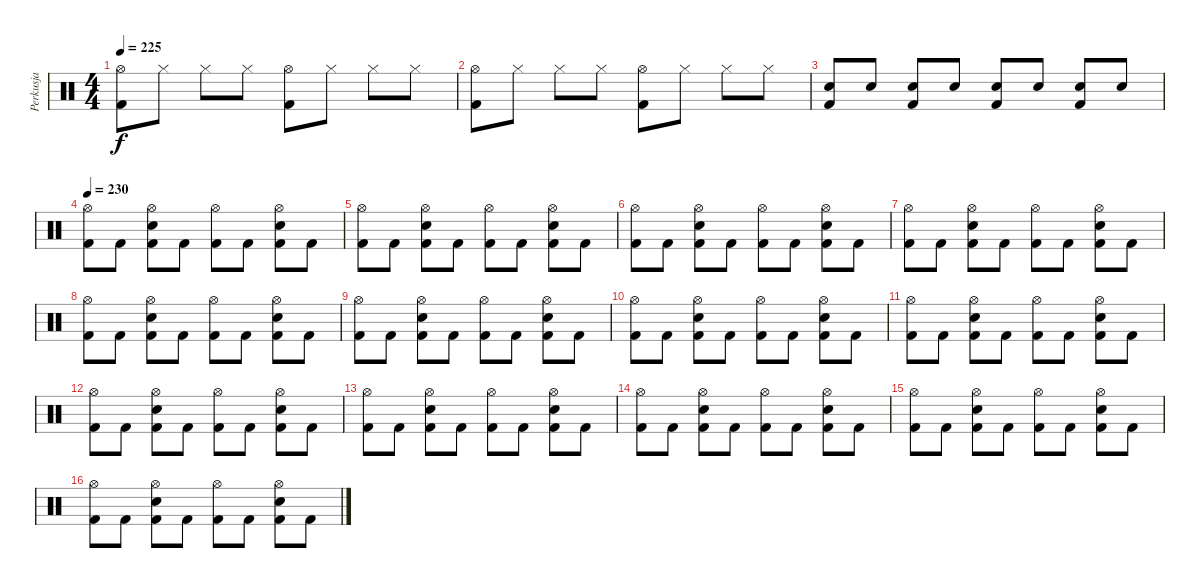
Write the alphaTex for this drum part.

\track ("Perkusja" "Perkusja") {instrument percussion}
\staff {score}
\articulation defaults
\ts (4 4)
\tempo 225
\clef neutral
\ks c
("Hi-Hat (open)" "Kick (hit) 2").8{dy f} "Hi-Hat (closed)".8 "Hi-Hat (closed)".8 "Hi-Hat (closed)".8 ("Hi-Hat (open)" "Kick (hit) 2").8 "Hi-Hat (closed)".8 "Hi-Hat (closed)".8 "Hi-Hat (closed)".8 |
("Hi-Hat (open)" "Kick (hit) 2").8 "Hi-Hat (closed)".8 "Hi-Hat (closed)".8 "Hi-Hat (closed)".8 ("Hi-Hat (open)" "Kick (hit) 2").8 "Hi-Hat (closed)".8 "Hi-Hat (closed)".8 "Hi-Hat (closed)".8 |
("Snare (hit) 2" "Kick (hit) 2").8 "Snare (hit) 2".8 ("Snare (hit) 2" "Kick (hit) 2").8 "Snare (hit) 2".8 ("Snare (hit) 2" "Kick (hit) 2").8 "Snare (hit) 2".8 ("Snare (hit) 2" "Kick (hit) 2").8 "Snare (hit) 2".8 |
\tempo 230
("Hi-Hat (open)" "Kick (hit) 2").8 "Kick (hit) 2".8 ("Hi-Hat (open)" "Snare (hit) 2" "Kick (hit) 2").8 "Kick (hit) 2".8 ("Hi-Hat (open)" "Kick (hit) 2").8 "Kick (hit) 2".8 ("Hi-Hat (open)" "Snare (hit) 2" "Kick (hit) 2").8 "Kick (hit) 2".8 |
("Hi-Hat (open)" "Kick (hit) 2").8 "Kick (hit) 2".8 ("Hi-Hat (open)" "Snare (hit) 2" "Kick (hit) 2").8 "Kick (hit) 2".8 ("Hi-Hat (open)" "Kick (hit) 2").8 "Kick (hit) 2".8 ("Hi-Hat (open)" "Snare (hit) 2" "Kick (hit) 2").8 "Kick (hit) 2".8 |
("Hi-Hat (open)" "Kick (hit) 2").8 "Kick (hit) 2".8 ("Hi-Hat (open)" "Snare (hit) 2" "Kick (hit) 2").8 "Kick (hit) 2".8 ("Hi-Hat (open)" "Kick (hit) 2").8 "Kick (hit) 2".8 ("Hi-Hat (open)" "Snare (hit) 2" "Kick (hit) 2").8 "Kick (hit) 2".8 |
("Hi-Hat (open)" "Kick (hit) 2").8 "Kick (hit) 2".8 ("Hi-Hat (open)" "Snare (hit) 2" "Kick (hit) 2").8 "Kick (hit) 2".8 ("Hi-Hat (open)" "Kick (hit) 2").8 "Kick (hit) 2".8 ("Hi-Hat (open)" "Snare (hit) 2" "Kick (hit) 2").8 "Kick (hit) 2".8 |
("Hi-Hat (open)" "Kick (hit) 2").8 "Kick (hit) 2".8 ("Hi-Hat (open)" "Snare (hit) 2" "Kick (hit) 2").8 "Kick (hit) 2".8 ("Hi-Hat (open)" "Kick (hit) 2").8 "Kick (hit) 2".8 ("Hi-Hat (open)" "Snare (hit) 2" "Kick (hit) 2").8 "Kick (hit) 2".8 |
("Hi-Hat (open)" "Kick (hit) 2").8 "Kick (hit) 2".8 ("Hi-Hat (open)" "Snare (hit) 2" "Kick (hit) 2").8 "Kick (hit) 2".8 ("Hi-Hat (open)" "Kick (hit) 2").8 "Kick (hit) 2".8 ("Hi-Hat (open)" "Snare (hit) 2" "Kick (hit) 2").8 "Kick (hit) 2".8 |
("Hi-Hat (open)" "Kick (hit) 2").8 "Kick (hit) 2".8 ("Hi-Hat (open)" "Snare (hit) 2" "Kick (hit) 2").8 "Kick (hit) 2".8 ("Hi-Hat (open)" "Kick (hit) 2").8 "Kick (hit) 2".8 ("Hi-Hat (open)" "Snare (hit) 2" "Kick (hit) 2").8 "Kick (hit) 2".8 |
("Hi-Hat (open)" "Kick (hit) 2").8 "Kick (hit) 2".8 ("Hi-Hat (open)" "Snare (hit) 2" "Kick (hit) 2").8 "Kick (hit) 2".8 ("Hi-Hat (open)" "Kick (hit) 2").8 "Kick (hit) 2".8 ("Hi-Hat (open)" "Snare (hit) 2" "Kick (hit) 2").8 "Kick (hit) 2".8 |
("Hi-Hat (open)" "Kick (hit) 2").8 "Kick (hit) 2".8 ("Hi-Hat (open)" "Snare (hit) 2" "Kick (hit) 2").8 "Kick (hit) 2".8 ("Hi-Hat (open)" "Kick (hit) 2").8 "Kick (hit) 2".8 ("Hi-Hat (open)" "Snare (hit) 2" "Kick (hit) 2").8 "Kick (hit) 2".8 |
("Hi-Hat (open)" "Kick (hit) 2").8 "Kick (hit) 2".8 ("Hi-Hat (open)" "Snare (hit) 2" "Kick (hit) 2").8 "Kick (hit) 2".8 ("Hi-Hat (open)" "Kick (hit) 2").8 "Kick (hit) 2".8 ("Hi-Hat (open)" "Snare (hit) 2" "Kick (hit) 2").8 "Kick (hit) 2".8 |
("Hi-Hat (open)" "Kick (hit) 2").8 "Kick (hit) 2".8 ("Hi-Hat (open)" "Snare (hit) 2" "Kick (hit) 2").8 "Kick (hit) 2".8 ("Hi-Hat (open)" "Kick (hit) 2").8 "Kick (hit) 2".8 ("Hi-Hat (open)" "Snare (hit) 2" "Kick (hit) 2").8 "Kick (hit) 2".8 |
("Hi-Hat (open)" "Kick (hit) 2").8 "Kick (hit) 2".8 ("Hi-Hat (open)" "Snare (hit) 2" "Kick (hit) 2").8 "Kick (hit) 2".8 ("Hi-Hat (open)" "Kick (hit) 2").8 "Kick (hit) 2".8 ("Hi-Hat (open)" "Snare (hit) 2" "Kick (hit) 2").8 "Kick (hit) 2".8 |
("Hi-Hat (open)" "Kick (hit) 2").8 "Kick (hit) 2".8 ("Hi-Hat (open)" "Snare (hit) 2" "Kick (hit) 2").8 "Kick (hit) 2".8 ("Hi-Hat (open)" "Kick (hit) 2").8 "Kick (hit) 2".8 ("Hi-Hat (open)" "Snare (hit) 2" "Kick (hit) 2").8 "Kick (hit) 2".8
